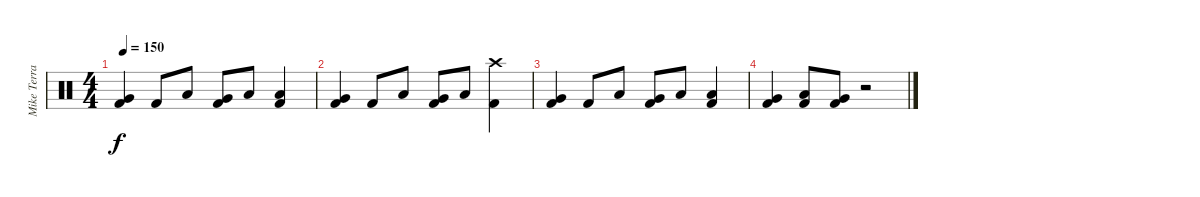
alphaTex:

\track ("Mike Terrana" "Mike Terra") {instrument percussion}
\staff {score}
\articulation defaults
\ts (4 4)
\tempo 150
\clef neutral
\ks c
("Very Low Tom (hit)" "Kick (hit) 2").4{dy f} "Kick (hit) 2".8 "Low Tom (hit)".8 ("Very Low Tom (hit)" "Kick (hit) 2").8 "Low Floor Tom (hit)".8 ("Low Tom (hit)" "Kick (hit) 2").4 |
("Very Low Tom (hit)" "Kick (hit) 2").4 "Kick (hit) 2".8 "Low Tom (hit)".8 ("Very Low Tom (hit)" "Kick (hit) 2").8 "Low Floor Tom (hit)".8 ("Crash high (hit)" "Kick (hit) 2").4 |
("Very Low Tom (hit)" "Kick (hit) 2").4 "Kick (hit) 2".8 "Low Tom (hit)".8 ("Very Low Tom (hit)" "Kick (hit) 2").8 "Low Floor Tom (hit)".8 ("Low Tom (hit)" "Kick (hit) 2").4 |
("Very Low Tom (hit)" "Kick (hit) 2").4 ("Low Tom (hit)" "Kick (hit) 2").8 ("Very Low Tom (hit)" "Kick (hit) 2").8 r.2
